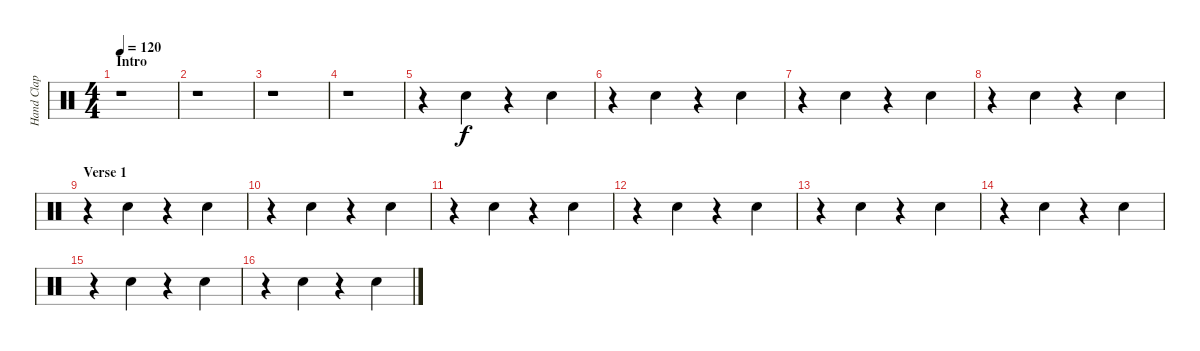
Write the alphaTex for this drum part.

\track ("Hand Clap" "Hand Clap") {instrument percussion}
\staff {score}
\articulation defaults
\ts (4 4)
\section ("" "Intro")
\tempo 120
\clef neutral
\ks c
r.1{dy f} |
r.1 |
r.1 |
r.1 |
r.4 "Hand Clap (hit)".4 r.4 "Hand Clap (hit)".4 |
r.4 "Hand Clap (hit)".4 r.4 "Hand Clap (hit)".4 |
r.4 "Hand Clap (hit)".4 r.4 "Hand Clap (hit)".4 |
r.4 "Hand Clap (hit)".4 r.4 "Hand Clap (hit)".4 |
\section ("" "Verse 1")
r.4 "Hand Clap (hit)".4 r.4 "Hand Clap (hit)".4 |
r.4 "Hand Clap (hit)".4 r.4 "Hand Clap (hit)".4 |
r.4 "Hand Clap (hit)".4 r.4 "Hand Clap (hit)".4 |
r.4 "Hand Clap (hit)".4 r.4 "Hand Clap (hit)".4 |
r.4 "Hand Clap (hit)".4 r.4 "Hand Clap (hit)".4 |
r.4 "Hand Clap (hit)".4 r.4 "Hand Clap (hit)".4 |
r.4 "Hand Clap (hit)".4 r.4 "Hand Clap (hit)".4 |
r.4 "Hand Clap (hit)".4 r.4 "Hand Clap (hit)".4
